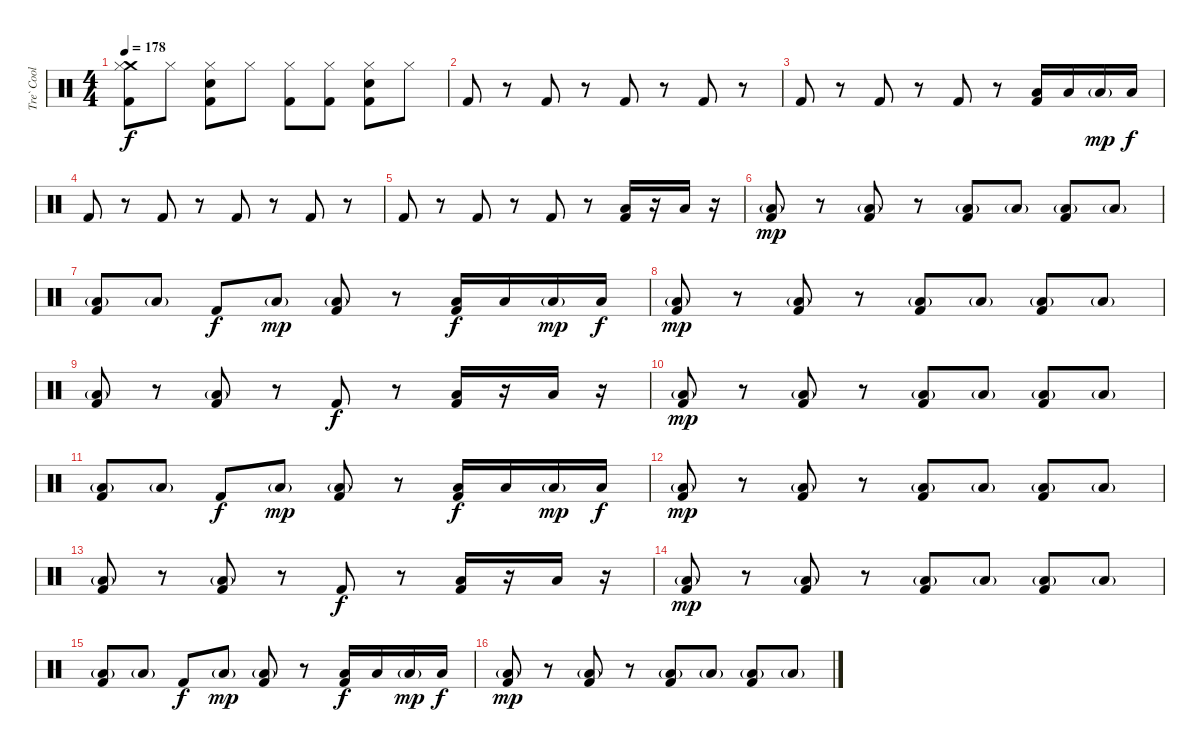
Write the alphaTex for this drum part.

\track ("Tre` Cool (Drums)" "Tre` Cool ") {instrument percussion}
\staff {score}
\articulation defaults
\ts (4 4)
\tempo 178
\clef neutral
\ks c
("Crash medium (hit)"{t} "Hi-Hat (closed)" "Kick (hit) 2").8{dy f} "Hi-Hat (closed)".8 ("Hi-Hat (closed)" "Snare (hit) 2" "Kick (hit) 2").8 "Hi-Hat (closed)".8 ("Hi-Hat (closed)" "Kick (hit) 2").8 ("Hi-Hat (closed)" "Kick (hit) 2").8 ("Hi-Hat (closed)" "Snare (hit) 2" "Kick (hit) 2").8 "Hi-Hat (closed)".8 |
"Kick (hit) 2".8 r.8 "Kick (hit) 2".8 r.8 "Kick (hit) 2".8 r.8 "Kick (hit) 2".8 r.8 |
"Kick (hit) 2".8 r.8 "Kick (hit) 2".8 r.8 "Kick (hit) 2".8 r.8 ("Low Floor Tom (hit)" "Kick (hit) 2").16 "Low Floor Tom (hit)".16 "Low Tom (hit)"{g}.16{dy mp} "Low Floor Tom (hit)".16{dy f} |
"Kick (hit) 2".8 r.8 "Kick (hit) 2".8 r.8 "Kick (hit) 2".8 r.8 "Kick (hit) 2".8 r.8 |
"Kick (hit) 2".8 r.8 "Kick (hit) 2".8 r.8 "Kick (hit) 2".8 r.8 ("Low Floor Tom (hit)" "Kick (hit) 2").16 r.16 "Low Tom (hit)".16 r.16 |
("Low Tom (hit)"{g} "Kick (hit) 2").8{dy mp} r.8 ("Low Tom (hit)"{g} "Kick (hit) 2").8 r.8 ("Low Tom (hit)"{g} "Kick (hit) 2").8 "Low Tom (hit)"{g}.8 ("Low Tom (hit)"{g} "Kick (hit) 2").8 "Low Tom (hit)"{g}.8 |
("Low Tom (hit)"{g} "Kick (hit) 2").8 "Low Tom (hit)"{g}.8 "Kick (hit) 2".8{dy f} "Low Tom (hit)"{g}.8{dy mp} ("Low Tom (hit)"{g} "Kick (hit) 2").8 r.8 ("Low Floor Tom (hit)" "Kick (hit) 2").16{dy f} "Low Floor Tom (hit)".16 "Low Tom (hit)"{g}.16{dy mp} "Low Floor Tom (hit)".16{dy f} |
("Low Tom (hit)"{g} "Kick (hit) 2").8{dy mp} r.8 ("Low Tom (hit)"{g} "Kick (hit) 2").8 r.8 ("Low Tom (hit)"{g} "Kick (hit) 2").8 "Low Tom (hit)"{g}.8 ("Low Tom (hit)"{g} "Kick (hit) 2").8 "Low Tom (hit)"{g}.8 |
("Low Tom (hit)"{g} "Kick (hit) 2").8 r.8 ("Low Tom (hit)"{g} "Kick (hit) 2").8 r.8 "Kick (hit) 2".8{dy f} r.8 ("Low Floor Tom (hit)" "Kick (hit) 2").16 r.16 "Low Tom (hit)".16 r.16 |
("Low Tom (hit)"{g} "Kick (hit) 2").8{dy mp} r.8 ("Low Tom (hit)"{g} "Kick (hit) 2").8 r.8 ("Low Tom (hit)"{g} "Kick (hit) 2").8 "Low Tom (hit)"{g}.8 ("Low Tom (hit)"{g} "Kick (hit) 2").8 "Low Tom (hit)"{g}.8 |
("Low Tom (hit)"{g} "Kick (hit) 2").8 "Low Tom (hit)"{g}.8 "Kick (hit) 2".8{dy f} "Low Tom (hit)"{g}.8{dy mp} ("Low Tom (hit)"{g} "Kick (hit) 2").8 r.8 ("Low Floor Tom (hit)" "Kick (hit) 2").16{dy f} "Low Floor Tom (hit)".16 "Low Tom (hit)"{g}.16{dy mp} "Low Floor Tom (hit)".16{dy f} |
("Low Tom (hit)"{g} "Kick (hit) 2").8{dy mp} r.8 ("Low Tom (hit)"{g} "Kick (hit) 2").8 r.8 ("Low Tom (hit)"{g} "Kick (hit) 2").8 "Low Tom (hit)"{g}.8 ("Low Tom (hit)"{g} "Kick (hit) 2").8 "Low Tom (hit)"{g}.8 |
("Low Tom (hit)"{g} "Kick (hit) 2").8 r.8 ("Low Tom (hit)"{g} "Kick (hit) 2").8 r.8 "Kick (hit) 2".8{dy f} r.8 ("Low Floor Tom (hit)" "Kick (hit) 2").16 r.16 "Low Tom (hit)".16 r.16 |
("Low Tom (hit)"{g} "Kick (hit) 2").8{dy mp} r.8 ("Low Tom (hit)"{g} "Kick (hit) 2").8 r.8 ("Low Tom (hit)"{g} "Kick (hit) 2").8 "Low Tom (hit)"{g}.8 ("Low Tom (hit)"{g} "Kick (hit) 2").8 "Low Tom (hit)"{g}.8 |
("Low Tom (hit)"{g} "Kick (hit) 2").8 "Low Tom (hit)"{g}.8 "Kick (hit) 2".8{dy f} "Low Tom (hit)"{g}.8{dy mp} ("Low Tom (hit)"{g} "Kick (hit) 2").8 r.8 ("Low Floor Tom (hit)" "Kick (hit) 2").16{dy f} "Low Floor Tom (hit)".16 "Low Tom (hit)"{g}.16{dy mp} "Low Floor Tom (hit)".16{dy f} |
("Low Tom (hit)"{g} "Kick (hit) 2").8{dy mp} r.8 ("Low Tom (hit)"{g} "Kick (hit) 2").8 r.8 ("Low Tom (hit)"{g} "Kick (hit) 2").8 "Low Tom (hit)"{g}.8 ("Low Tom (hit)"{g} "Kick (hit) 2").8 "Low Tom (hit)"{g}.8
